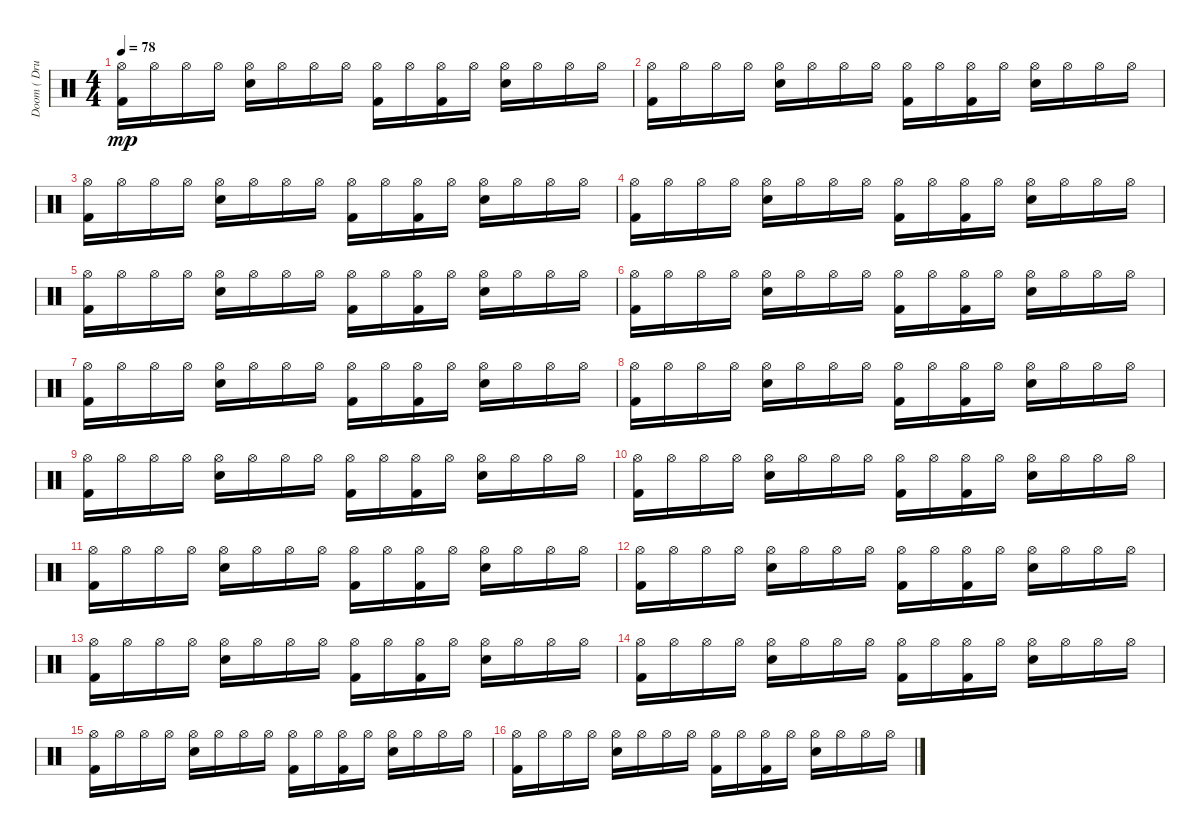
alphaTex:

\track ("Doom ( Drums )" "Doom ( Dru") {instrument percussion}
\staff {score}
\articulation defaults
\ts (4 4)
\tempo 78
\clef neutral
\ks c
("Kick (hit) 2" "Hi-Hat (open)").16{dy mp} "Hi-Hat (open)".16 "Hi-Hat (open)".16 "Hi-Hat (open)".16 ("Electric Snare (hit)" "Hi-Hat (open)").16 "Hi-Hat (open)".16 "Hi-Hat (open)".16 "Hi-Hat (open)".16 ("Kick (hit) 2" "Hi-Hat (open)").16 "Hi-Hat (open)".16 ("Kick (hit) 2" "Hi-Hat (open)").16 "Hi-Hat (open)".16 ("Electric Snare (hit)" "Hi-Hat (open)").16 "Hi-Hat (open)".16 "Hi-Hat (open)".16 "Hi-Hat (open)".16 |
("Kick (hit) 2" "Hi-Hat (open)").16 "Hi-Hat (open)".16 "Hi-Hat (open)".16 "Hi-Hat (open)".16 ("Electric Snare (hit)" "Hi-Hat (open)").16 "Hi-Hat (open)".16 "Hi-Hat (open)".16 "Hi-Hat (open)".16 ("Kick (hit) 2" "Hi-Hat (open)").16 "Hi-Hat (open)".16 ("Kick (hit) 2" "Hi-Hat (open)").16 "Hi-Hat (open)".16 ("Electric Snare (hit)" "Hi-Hat (open)").16 "Hi-Hat (open)".16 "Hi-Hat (open)".16 "Hi-Hat (open)".16 |
("Kick (hit) 2" "Hi-Hat (open)").16 "Hi-Hat (open)".16 "Hi-Hat (open)".16 "Hi-Hat (open)".16 ("Electric Snare (hit)" "Hi-Hat (open)").16 "Hi-Hat (open)".16 "Hi-Hat (open)".16 "Hi-Hat (open)".16 ("Kick (hit) 2" "Hi-Hat (open)").16 "Hi-Hat (open)".16 ("Kick (hit) 2" "Hi-Hat (open)").16 "Hi-Hat (open)".16 ("Electric Snare (hit)" "Hi-Hat (open)").16 "Hi-Hat (open)".16 "Hi-Hat (open)".16 "Hi-Hat (open)".16 |
("Kick (hit) 2" "Hi-Hat (open)").16 "Hi-Hat (open)".16 "Hi-Hat (open)".16 "Hi-Hat (open)".16 ("Electric Snare (hit)" "Hi-Hat (open)").16 "Hi-Hat (open)".16 "Hi-Hat (open)".16 "Hi-Hat (open)".16 ("Kick (hit) 2" "Hi-Hat (open)").16 "Hi-Hat (open)".16 ("Kick (hit) 2" "Hi-Hat (open)").16 "Hi-Hat (open)".16 ("Electric Snare (hit)" "Hi-Hat (open)").16 "Hi-Hat (open)".16 "Hi-Hat (open)".16 "Hi-Hat (open)".16 |
("Kick (hit) 2" "Hi-Hat (open)").16 "Hi-Hat (open)".16 "Hi-Hat (open)".16 "Hi-Hat (open)".16 ("Electric Snare (hit)" "Hi-Hat (open)").16 "Hi-Hat (open)".16 "Hi-Hat (open)".16 "Hi-Hat (open)".16 ("Kick (hit) 2" "Hi-Hat (open)").16 "Hi-Hat (open)".16 ("Kick (hit) 2" "Hi-Hat (open)").16 "Hi-Hat (open)".16 ("Electric Snare (hit)" "Hi-Hat (open)").16 "Hi-Hat (open)".16 "Hi-Hat (open)".16 "Hi-Hat (open)".16 |
("Kick (hit) 2" "Hi-Hat (open)").16 "Hi-Hat (open)".16 "Hi-Hat (open)".16 "Hi-Hat (open)".16 ("Electric Snare (hit)" "Hi-Hat (open)").16 "Hi-Hat (open)".16 "Hi-Hat (open)".16 "Hi-Hat (open)".16 ("Kick (hit) 2" "Hi-Hat (open)").16 "Hi-Hat (open)".16 ("Kick (hit) 2" "Hi-Hat (open)").16 "Hi-Hat (open)".16 ("Electric Snare (hit)" "Hi-Hat (open)").16 "Hi-Hat (open)".16 "Hi-Hat (open)".16 "Hi-Hat (open)".16 |
("Kick (hit) 2" "Hi-Hat (open)").16 "Hi-Hat (open)".16 "Hi-Hat (open)".16 "Hi-Hat (open)".16 ("Electric Snare (hit)" "Hi-Hat (open)").16 "Hi-Hat (open)".16 "Hi-Hat (open)".16 "Hi-Hat (open)".16 ("Kick (hit) 2" "Hi-Hat (open)").16 "Hi-Hat (open)".16 ("Kick (hit) 2" "Hi-Hat (open)").16 "Hi-Hat (open)".16 ("Electric Snare (hit)" "Hi-Hat (open)").16 "Hi-Hat (open)".16 "Hi-Hat (open)".16 "Hi-Hat (open)".16 |
("Kick (hit) 2" "Hi-Hat (open)").16 "Hi-Hat (open)".16 "Hi-Hat (open)".16 "Hi-Hat (open)".16 ("Electric Snare (hit)" "Hi-Hat (open)").16 "Hi-Hat (open)".16 "Hi-Hat (open)".16 "Hi-Hat (open)".16 ("Kick (hit) 2" "Hi-Hat (open)").16 "Hi-Hat (open)".16 ("Kick (hit) 2" "Hi-Hat (open)").16 "Hi-Hat (open)".16 ("Electric Snare (hit)" "Hi-Hat (open)").16 "Hi-Hat (open)".16 "Hi-Hat (open)".16 "Hi-Hat (open)".16 |
("Kick (hit) 2" "Hi-Hat (open)").16 "Hi-Hat (open)".16 "Hi-Hat (open)".16 "Hi-Hat (open)".16 ("Electric Snare (hit)" "Hi-Hat (open)").16 "Hi-Hat (open)".16 "Hi-Hat (open)".16 "Hi-Hat (open)".16 ("Kick (hit) 2" "Hi-Hat (open)").16 "Hi-Hat (open)".16 ("Kick (hit) 2" "Hi-Hat (open)").16 "Hi-Hat (open)".16 ("Electric Snare (hit)" "Hi-Hat (open)").16 "Hi-Hat (open)".16 "Hi-Hat (open)".16 "Hi-Hat (open)".16 |
("Kick (hit) 2" "Hi-Hat (open)").16 "Hi-Hat (open)".16 "Hi-Hat (open)".16 "Hi-Hat (open)".16 ("Electric Snare (hit)" "Hi-Hat (open)").16 "Hi-Hat (open)".16 "Hi-Hat (open)".16 "Hi-Hat (open)".16 ("Kick (hit) 2" "Hi-Hat (open)").16 "Hi-Hat (open)".16 ("Kick (hit) 2" "Hi-Hat (open)").16 "Hi-Hat (open)".16 ("Electric Snare (hit)" "Hi-Hat (open)").16 "Hi-Hat (open)".16 "Hi-Hat (open)".16 "Hi-Hat (open)".16 |
("Kick (hit) 2" "Hi-Hat (open)").16 "Hi-Hat (open)".16 "Hi-Hat (open)".16 "Hi-Hat (open)".16 ("Electric Snare (hit)" "Hi-Hat (open)").16 "Hi-Hat (open)".16 "Hi-Hat (open)".16 "Hi-Hat (open)".16 ("Kick (hit) 2" "Hi-Hat (open)").16 "Hi-Hat (open)".16 ("Kick (hit) 2" "Hi-Hat (open)").16 "Hi-Hat (open)".16 ("Electric Snare (hit)" "Hi-Hat (open)").16 "Hi-Hat (open)".16 "Hi-Hat (open)".16 "Hi-Hat (open)".16 |
("Kick (hit) 2" "Hi-Hat (open)").16 "Hi-Hat (open)".16 "Hi-Hat (open)".16 "Hi-Hat (open)".16 ("Electric Snare (hit)" "Hi-Hat (open)").16 "Hi-Hat (open)".16 "Hi-Hat (open)".16 "Hi-Hat (open)".16 ("Kick (hit) 2" "Hi-Hat (open)").16 "Hi-Hat (open)".16 ("Kick (hit) 2" "Hi-Hat (open)").16 "Hi-Hat (open)".16 ("Electric Snare (hit)" "Hi-Hat (open)").16 "Hi-Hat (open)".16 "Hi-Hat (open)".16 "Hi-Hat (open)".16 |
("Kick (hit) 2" "Hi-Hat (open)").16 "Hi-Hat (open)".16 "Hi-Hat (open)".16 "Hi-Hat (open)".16 ("Electric Snare (hit)" "Hi-Hat (open)").16 "Hi-Hat (open)".16 "Hi-Hat (open)".16 "Hi-Hat (open)".16 ("Kick (hit) 2" "Hi-Hat (open)").16 "Hi-Hat (open)".16 ("Kick (hit) 2" "Hi-Hat (open)").16 "Hi-Hat (open)".16 ("Electric Snare (hit)" "Hi-Hat (open)").16 "Hi-Hat (open)".16 "Hi-Hat (open)".16 "Hi-Hat (open)".16 |
("Kick (hit) 2" "Hi-Hat (open)").16 "Hi-Hat (open)".16 "Hi-Hat (open)".16 "Hi-Hat (open)".16 ("Electric Snare (hit)" "Hi-Hat (open)").16 "Hi-Hat (open)".16 "Hi-Hat (open)".16 "Hi-Hat (open)".16 ("Kick (hit) 2" "Hi-Hat (open)").16 "Hi-Hat (open)".16 ("Kick (hit) 2" "Hi-Hat (open)").16 "Hi-Hat (open)".16 ("Electric Snare (hit)" "Hi-Hat (open)").16 "Hi-Hat (open)".16 "Hi-Hat (open)".16 "Hi-Hat (open)".16 |
("Kick (hit) 2" "Hi-Hat (open)").16 "Hi-Hat (open)".16 "Hi-Hat (open)".16 "Hi-Hat (open)".16 ("Electric Snare (hit)" "Hi-Hat (open)").16 "Hi-Hat (open)".16 "Hi-Hat (open)".16 "Hi-Hat (open)".16 ("Kick (hit) 2" "Hi-Hat (open)").16 "Hi-Hat (open)".16 ("Kick (hit) 2" "Hi-Hat (open)").16 "Hi-Hat (open)".16 ("Electric Snare (hit)" "Hi-Hat (open)").16 "Hi-Hat (open)".16 "Hi-Hat (open)".16 "Hi-Hat (open)".16 |
("Kick (hit) 2" "Hi-Hat (open)").16 "Hi-Hat (open)".16 "Hi-Hat (open)".16 "Hi-Hat (open)".16 ("Electric Snare (hit)" "Hi-Hat (open)").16 "Hi-Hat (open)".16 "Hi-Hat (open)".16 "Hi-Hat (open)".16 ("Kick (hit) 2" "Hi-Hat (open)").16 "Hi-Hat (open)".16 ("Kick (hit) 2" "Hi-Hat (open)").16 "Hi-Hat (open)".16 ("Electric Snare (hit)" "Hi-Hat (open)").16 "Hi-Hat (open)".16 "Hi-Hat (open)".16 "Hi-Hat (open)".16
